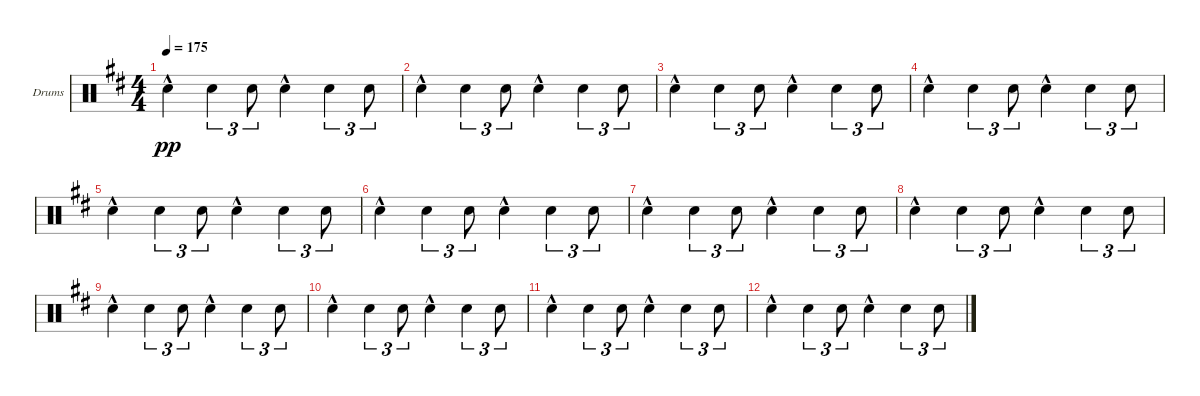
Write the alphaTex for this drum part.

\defaultSystemsLayout 4
\bracketExtendMode groupsimilarinstruments
\firstSystemTrackNameOrientation horizontal
\otherSystemsTrackNameOrientation horizontal
\track ("Drumkit" "Drums") {instrument percussion}
\staff {score}
\articulation defaults
\ts (4 4)
\tempo 175
\clef neutral
\ks d "Snare (hit) 2"{hac}.4{dy pp} "Snare (hit) 2".4{tu (3 2)} "Snare (hit) 2".8{tu (3 2)} "Snare (hit) 2"{hac}.4 "Snare (hit) 2".4{tu (3 2)} "Snare (hit) 2".8{tu (3 2)}
|
"Snare (hit) 2"{hac}.4 "Snare (hit) 2".4{tu (3 2)} "Snare (hit) 2".8{tu (3 2)} "Snare (hit) 2"{hac}.4 "Snare (hit) 2".4{tu (3 2)} "Snare (hit) 2".8{tu (3 2)} |
"Snare (hit) 2"{hac}.4 "Snare (hit) 2".4{tu (3 2)} "Snare (hit) 2".8{tu (3 2)} "Snare (hit) 2"{hac}.4 "Snare (hit) 2".4{tu (3 2)} "Snare (hit) 2".8{tu (3 2)} |
"Snare (hit) 2"{hac}.4 "Snare (hit) 2".4{tu (3 2)} "Snare (hit) 2".8{tu (3 2)} "Snare (hit) 2"{hac}.4 "Snare (hit) 2".4{tu (3 2)} "Snare (hit) 2".8{tu (3 2)} |
"Snare (hit) 2"{hac}.4 "Snare (hit) 2".4{tu (3 2)} "Snare (hit) 2".8{tu (3 2)} "Snare (hit) 2"{hac}.4 "Snare (hit) 2".4{tu (3 2)} "Snare (hit) 2".8{tu (3 2)} |
"Snare (hit) 2"{hac}.4 "Snare (hit) 2".4{tu (3 2)} "Snare (hit) 2".8{tu (3 2)} "Snare (hit) 2"{hac}.4 "Snare (hit) 2".4{tu (3 2)} "Snare (hit) 2".8{tu (3 2)} |
"Snare (hit) 2"{hac}.4 "Snare (hit) 2".4{tu (3 2)} "Snare (hit) 2".8{tu (3 2)} "Snare (hit) 2"{hac}.4 "Snare (hit) 2".4{tu (3 2)} "Snare (hit) 2".8{tu (3 2)} |
"Snare (hit) 2"{hac}.4 "Snare (hit) 2".4{tu (3 2)} "Snare (hit) 2".8{tu (3 2)} "Snare (hit) 2"{hac}.4 "Snare (hit) 2".4{tu (3 2)} "Snare (hit) 2".8{tu (3 2)} |
"Snare (hit) 2"{hac}.4 "Snare (hit) 2".4{tu (3 2)} "Snare (hit) 2".8{tu (3 2)} "Snare (hit) 2"{hac}.4 "Snare (hit) 2".4{tu (3 2)} "Snare (hit) 2".8{tu (3 2)} |
"Snare (hit) 2"{hac}.4 "Snare (hit) 2".4{tu (3 2)} "Snare (hit) 2".8{tu (3 2)} "Snare (hit) 2"{hac}.4 "Snare (hit) 2".4{tu (3 2)} "Snare (hit) 2".8{tu (3 2)} |
"Snare (hit) 2"{hac}.4 "Snare (hit) 2".4{tu (3 2)} "Snare (hit) 2".8{tu (3 2)} "Snare (hit) 2"{hac}.4 "Snare (hit) 2".4{tu (3 2)} "Snare (hit) 2".8{tu (3 2)} |
"Snare (hit) 2"{hac}.4 "Snare (hit) 2".4{tu (3 2)} "Snare (hit) 2".8{tu (3 2)} "Snare (hit) 2"{hac}.4 "Snare (hit) 2".4{tu (3 2)} "Snare (hit) 2".8{tu (3 2)}
